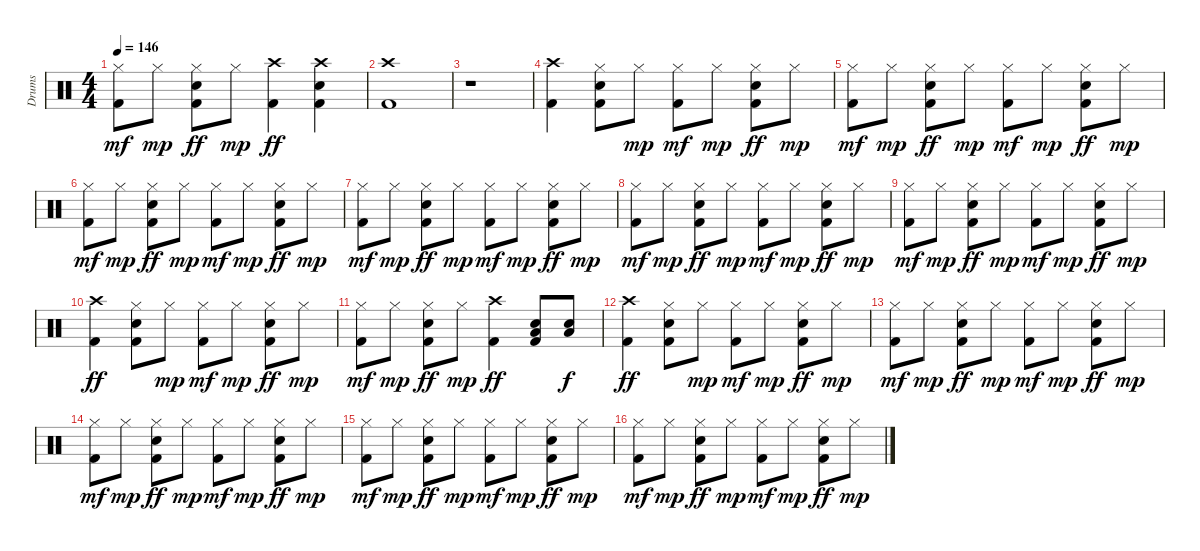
\track ("Drums" "Drums") {instrument percussion}
\staff {score}
\articulation defaults
\ts (4 4)
\tempo 146
\clef neutral
\ks c
("Kick (hit) 2" "Hi-Hat (closed)").8{dy mf} "Hi-Hat (closed)".8{dy mp} ("Kick (hit) 2" "Snare (hit) 2" "Hi-Hat (closed)").8{dy ff} "Hi-Hat (closed)".8{dy mp} ("Kick (hit) 2" "Crash high (hit)").4{dy ff} ("Kick (hit) 2" "Snare (hit) 2" "Crash high (hit)").4 |
("Kick (hit) 2" "Crash high (hit)").1 |
r.1 |
("Kick (hit) 2" "Crash high (hit)").4 ("Kick (hit) 2" "Hi-Hat (closed)" "Snare (hit) 2").8 "Hi-Hat (closed)".8{dy mp} ("Kick (hit) 2" "Hi-Hat (closed)").8{dy mf} "Hi-Hat (closed)".8{dy mp} ("Kick (hit) 2" "Hi-Hat (closed)" "Snare (hit) 2").8{dy ff} "Hi-Hat (closed)".8{dy mp} |
("Kick (hit) 2" "Hi-Hat (closed)").8{dy mf} "Hi-Hat (closed)".8{dy mp} ("Kick (hit) 2" "Snare (hit) 2" "Hi-Hat (closed)").8{dy ff} "Hi-Hat (closed)".8{dy mp} ("Kick (hit) 2" "Hi-Hat (closed)").8{dy mf} "Hi-Hat (closed)".8{dy mp} ("Kick (hit) 2" "Snare (hit) 2" "Hi-Hat (closed)").8{dy ff} "Hi-Hat (closed)".8{dy mp} |
("Kick (hit) 2" "Hi-Hat (closed)").8{dy mf} "Hi-Hat (closed)".8{dy mp} ("Kick (hit) 2" "Snare (hit) 2" "Hi-Hat (closed)").8{dy ff} "Hi-Hat (closed)".8{dy mp} ("Kick (hit) 2" "Hi-Hat (closed)").8{dy mf} "Hi-Hat (closed)".8{dy mp} ("Kick (hit) 2" "Snare (hit) 2" "Hi-Hat (closed)").8{dy ff} "Hi-Hat (closed)".8{dy mp} |
("Kick (hit) 2" "Hi-Hat (closed)").8{dy mf} "Hi-Hat (closed)".8{dy mp} ("Kick (hit) 2" "Snare (hit) 2" "Hi-Hat (closed)").8{dy ff} "Hi-Hat (closed)".8{dy mp} ("Kick (hit) 2" "Hi-Hat (closed)").8{dy mf} "Hi-Hat (closed)".8{dy mp} ("Kick (hit) 2" "Snare (hit) 2" "Hi-Hat (closed)").8{dy ff} "Hi-Hat (closed)".8{dy mp} |
("Kick (hit) 2" "Hi-Hat (closed)").8{dy mf} "Hi-Hat (closed)".8{dy mp} ("Kick (hit) 2" "Snare (hit) 2" "Hi-Hat (closed)").8{dy ff} "Hi-Hat (closed)".8{dy mp} ("Kick (hit) 2" "Hi-Hat (closed)").8{dy mf} "Hi-Hat (closed)".8{dy mp} ("Kick (hit) 2" "Snare (hit) 2" "Hi-Hat (closed)").8{dy ff} "Hi-Hat (closed)".8{dy mp} |
("Kick (hit) 2" "Hi-Hat (closed)").8{dy mf} "Hi-Hat (closed)".8{dy mp} ("Kick (hit) 2" "Snare (hit) 2" "Hi-Hat (closed)").8{dy ff} "Hi-Hat (closed)".8{dy mp} ("Kick (hit) 2" "Hi-Hat (closed)").8{dy mf} "Hi-Hat (closed)".8{dy mp} ("Kick (hit) 2" "Snare (hit) 2" "Hi-Hat (closed)").8{dy ff} "Hi-Hat (closed)".8{dy mp} |
("Kick (hit) 2" "Crash high (hit)").4{dy ff} ("Kick (hit) 2" "Hi-Hat (closed)" "Snare (hit) 2").8 "Hi-Hat (closed)".8{dy mp} ("Kick (hit) 2" "Hi-Hat (closed)").8{dy mf} "Hi-Hat (closed)".8{dy mp} ("Kick (hit) 2" "Hi-Hat (closed)" "Snare (hit) 2").8{dy ff} "Hi-Hat (closed)".8{dy mp} |
("Kick (hit) 2" "Hi-Hat (closed)").8{dy mf} "Hi-Hat (closed)".8{dy mp} ("Kick (hit) 2" "Snare (hit) 2" "Hi-Hat (closed)").8{dy ff} "Hi-Hat (closed)".8{dy mp} ("Kick (hit) 2" "Crash high (hit)").4{dy ff} ("Kick (hit) 2" "Snare (hit) 2" "Low Floor Tom (hit)").8 ("Snare (hit) 2" "Low Floor Tom (hit)").8{dy f} |
("Kick (hit) 2" "Crash high (hit)").4{dy ff} ("Kick (hit) 2" "Hi-Hat (closed)" "Snare (hit) 2").8 "Hi-Hat (closed)".8{dy mp} ("Kick (hit) 2" "Hi-Hat (closed)").8{dy mf} "Hi-Hat (closed)".8{dy mp} ("Kick (hit) 2" "Hi-Hat (closed)" "Snare (hit) 2").8{dy ff} "Hi-Hat (closed)".8{dy mp} |
("Kick (hit) 2" "Hi-Hat (closed)").8{dy mf} "Hi-Hat (closed)".8{dy mp} ("Kick (hit) 2" "Snare (hit) 2" "Hi-Hat (closed)").8{dy ff} "Hi-Hat (closed)".8{dy mp} ("Kick (hit) 2" "Hi-Hat (closed)").8{dy mf} "Hi-Hat (closed)".8{dy mp} ("Kick (hit) 2" "Snare (hit) 2" "Hi-Hat (closed)").8{dy ff} "Hi-Hat (closed)".8{dy mp} |
("Kick (hit) 2" "Hi-Hat (closed)").8{dy mf} "Hi-Hat (closed)".8{dy mp} ("Kick (hit) 2" "Snare (hit) 2" "Hi-Hat (closed)").8{dy ff} "Hi-Hat (closed)".8{dy mp} ("Kick (hit) 2" "Hi-Hat (closed)").8{dy mf} "Hi-Hat (closed)".8{dy mp} ("Kick (hit) 2" "Snare (hit) 2" "Hi-Hat (closed)").8{dy ff} "Hi-Hat (closed)".8{dy mp} |
("Kick (hit) 2" "Hi-Hat (closed)").8{dy mf} "Hi-Hat (closed)".8{dy mp} ("Kick (hit) 2" "Snare (hit) 2" "Hi-Hat (closed)").8{dy ff} "Hi-Hat (closed)".8{dy mp} ("Kick (hit) 2" "Hi-Hat (closed)").8{dy mf} "Hi-Hat (closed)".8{dy mp} ("Kick (hit) 2" "Snare (hit) 2" "Hi-Hat (closed)").8{dy ff} "Hi-Hat (closed)".8{dy mp} |
("Kick (hit) 2" "Hi-Hat (closed)").8{dy mf} "Hi-Hat (closed)".8{dy mp} ("Kick (hit) 2" "Snare (hit) 2" "Hi-Hat (closed)").8{dy ff} "Hi-Hat (closed)".8{dy mp} ("Kick (hit) 2" "Hi-Hat (closed)").8{dy mf} "Hi-Hat (closed)".8{dy mp} ("Kick (hit) 2" "Snare (hit) 2" "Hi-Hat (closed)").8{dy ff} "Hi-Hat (closed)".8{dy mp}
